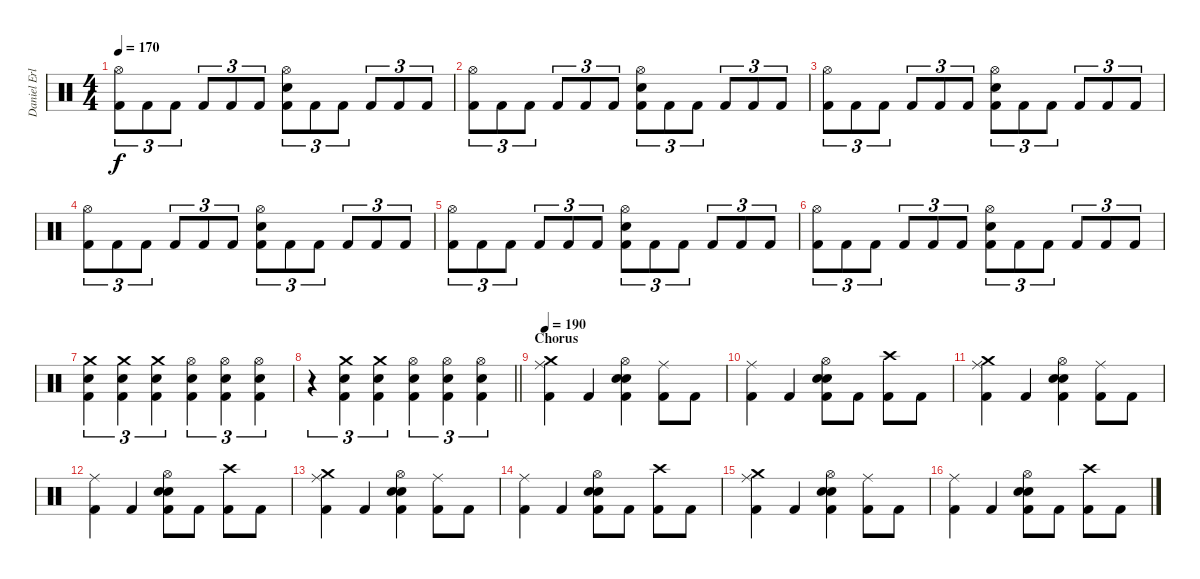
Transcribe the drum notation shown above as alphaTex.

\track ("Daniel Erlandsson" "Daniel Erl") {instrument percussion}
\staff {score}
\articulation defaults
\ts (4 4)
\tempo 170
\clef neutral
\ks c
("Hi-Hat (open)" "Kick (hit) 2").8{tu (3 2) dy f} "Kick (hit) 2".8{tu (3 2)} "Kick (hit) 2".8{tu (3 2)} "Kick (hit) 2".8{tu (3 2)} "Kick (hit) 2".8{tu (3 2)} "Kick (hit) 2".8{tu (3 2)} ("Hi-Hat (open)" "Snare (hit) 2" "Kick (hit) 2").8{tu (3 2)} "Kick (hit) 2".8{tu (3 2)} "Kick (hit) 2".8{tu (3 2)} "Kick (hit) 2".8{tu (3 2)} "Kick (hit) 2".8{tu (3 2)} "Kick (hit) 2".8{tu (3 2)} |
("Hi-Hat (open)" "Kick (hit) 2").8{tu (3 2)} "Kick (hit) 2".8{tu (3 2)} "Kick (hit) 2".8{tu (3 2)} "Kick (hit) 2".8{tu (3 2)} "Kick (hit) 2".8{tu (3 2)} "Kick (hit) 2".8{tu (3 2)} ("Hi-Hat (open)" "Snare (hit) 2" "Kick (hit) 2").8{tu (3 2)} "Kick (hit) 2".8{tu (3 2)} "Kick (hit) 2".8{tu (3 2)} "Kick (hit) 2".8{tu (3 2)} "Kick (hit) 2".8{tu (3 2)} "Kick (hit) 2".8{tu (3 2)} |
("Hi-Hat (open)" "Kick (hit) 2").8{tu (3 2)} "Kick (hit) 2".8{tu (3 2)} "Kick (hit) 2".8{tu (3 2)} "Kick (hit) 2".8{tu (3 2)} "Kick (hit) 2".8{tu (3 2)} "Kick (hit) 2".8{tu (3 2)} ("Hi-Hat (open)" "Snare (hit) 2" "Kick (hit) 2").8{tu (3 2)} "Kick (hit) 2".8{tu (3 2)} "Kick (hit) 2".8{tu (3 2)} "Kick (hit) 2".8{tu (3 2)} "Kick (hit) 2".8{tu (3 2)} "Kick (hit) 2".8{tu (3 2)} |
("Hi-Hat (open)" "Kick (hit) 2").8{tu (3 2)} "Kick (hit) 2".8{tu (3 2)} "Kick (hit) 2".8{tu (3 2)} "Kick (hit) 2".8{tu (3 2)} "Kick (hit) 2".8{tu (3 2)} "Kick (hit) 2".8{tu (3 2)} ("Hi-Hat (open)" "Snare (hit) 2" "Kick (hit) 2").8{tu (3 2)} "Kick (hit) 2".8{tu (3 2)} "Kick (hit) 2".8{tu (3 2)} "Kick (hit) 2".8{tu (3 2)} "Kick (hit) 2".8{tu (3 2)} "Kick (hit) 2".8{tu (3 2)} |
("Hi-Hat (open)" "Kick (hit) 2").8{tu (3 2)} "Kick (hit) 2".8{tu (3 2)} "Kick (hit) 2".8{tu (3 2)} "Kick (hit) 2".8{tu (3 2)} "Kick (hit) 2".8{tu (3 2)} "Kick (hit) 2".8{tu (3 2)} ("Hi-Hat (open)" "Snare (hit) 2" "Kick (hit) 2").8{tu (3 2)} "Kick (hit) 2".8{tu (3 2)} "Kick (hit) 2".8{tu (3 2)} "Kick (hit) 2".8{tu (3 2)} "Kick (hit) 2".8{tu (3 2)} "Kick (hit) 2".8{tu (3 2)} |
("Hi-Hat (open)" "Kick (hit) 2").8{tu (3 2)} "Kick (hit) 2".8{tu (3 2)} "Kick (hit) 2".8{tu (3 2)} "Kick (hit) 2".8{tu (3 2)} "Kick (hit) 2".8{tu (3 2)} "Kick (hit) 2".8{tu (3 2)} ("Hi-Hat (open)" "Snare (hit) 2" "Kick (hit) 2").8{tu (3 2)} "Kick (hit) 2".8{tu (3 2)} "Kick (hit) 2".8{tu (3 2)} "Kick (hit) 2".8{tu (3 2)} "Kick (hit) 2".8{tu (3 2)} "Kick (hit) 2".8{tu (3 2)} |
("Crash medium (hit)" "Snare (hit) 2" "Kick (hit) 2").4{tu (3 2)} ("Crash medium (hit)" "Snare (hit) 2" "Kick (hit) 2").4{tu (3 2)} ("Crash medium (hit)" "Snare (hit) 2" "Kick (hit) 2").4{tu (3 2)} ("Hi-Hat (open)" "Snare (hit) 2" "Kick (hit) 2").4{tu (3 2)} ("Hi-Hat (open)" "Snare (hit) 2" "Kick (hit) 2").4{tu (3 2)} ("Hi-Hat (open)" "Snare (hit) 2" "Kick (hit) 2").4{tu (3 2)} |
\barLineRight lightlight
r.4{tu (3 2)} ("Crash medium (hit)" "Snare (hit) 2" "Kick (hit) 2").4{tu (3 2)} ("Crash medium (hit)" "Snare (hit) 2" "Kick (hit) 2").4{tu (3 2)} ("Hi-Hat (open)" "Snare (hit) 2" "Kick (hit) 2").4{tu (3 2)} ("Hi-Hat (open)" "Snare (hit) 2" "Kick (hit) 2").4{tu (3 2)} ("Hi-Hat (open)" "Snare (hit) 2" "Kick (hit) 2").4{tu (3 2)} |
\section ("" "Chorus")
\tempo 190
("Crash medium (hit)" "Ride (middle)" "Kick (hit) 2").4 "Kick (hit) 2".4 ("Hi-Hat (open)" "Snare (hit) 2" "Electric Snare (hit)" "Kick (hit) 2").4 ("Ride (middle)" "Kick (hit) 2").8 "Kick (hit) 2".8 |
("Ride (middle)" "Kick (hit) 2").4 "Kick (hit) 2".4 ("Hi-Hat (open)" "Snare (hit) 2" "Electric Snare (hit)" "Kick (hit) 2").8 "Kick (hit) 2".8 ("Crash high (hit)" "Kick (hit) 2").8 "Kick (hit) 2".8 |
("Crash medium (hit)" "Ride (middle)" "Kick (hit) 2").4 "Kick (hit) 2".4 ("Hi-Hat (open)" "Snare (hit) 2" "Electric Snare (hit)" "Kick (hit) 2").4 ("Ride (middle)" "Kick (hit) 2").8 "Kick (hit) 2".8 |
("Ride (middle)" "Kick (hit) 2").4 "Kick (hit) 2".4 ("Hi-Hat (open)" "Snare (hit) 2" "Electric Snare (hit)" "Kick (hit) 2").8 "Kick (hit) 2".8 ("Crash high (hit)" "Kick (hit) 2").8 "Kick (hit) 2".8 |
("Crash medium (hit)" "Ride (middle)" "Kick (hit) 2").4 "Kick (hit) 2".4 ("Hi-Hat (open)" "Snare (hit) 2" "Electric Snare (hit)" "Kick (hit) 2").4 ("Ride (middle)" "Kick (hit) 2").8 "Kick (hit) 2".8 |
("Ride (middle)" "Kick (hit) 2").4 "Kick (hit) 2".4 ("Hi-Hat (open)" "Snare (hit) 2" "Electric Snare (hit)" "Kick (hit) 2").8 "Kick (hit) 2".8 ("Crash high (hit)" "Kick (hit) 2").8 "Kick (hit) 2".8 |
("Crash medium (hit)" "Ride (middle)" "Kick (hit) 2").4 "Kick (hit) 2".4 ("Hi-Hat (open)" "Snare (hit) 2" "Electric Snare (hit)" "Kick (hit) 2").4 ("Ride (middle)" "Kick (hit) 2").8 "Kick (hit) 2".8 |
("Ride (middle)" "Kick (hit) 2").4 "Kick (hit) 2".4 ("Hi-Hat (open)" "Snare (hit) 2" "Electric Snare (hit)" "Kick (hit) 2").8 "Kick (hit) 2".8 ("Crash high (hit)" "Kick (hit) 2").8 "Kick (hit) 2".8
